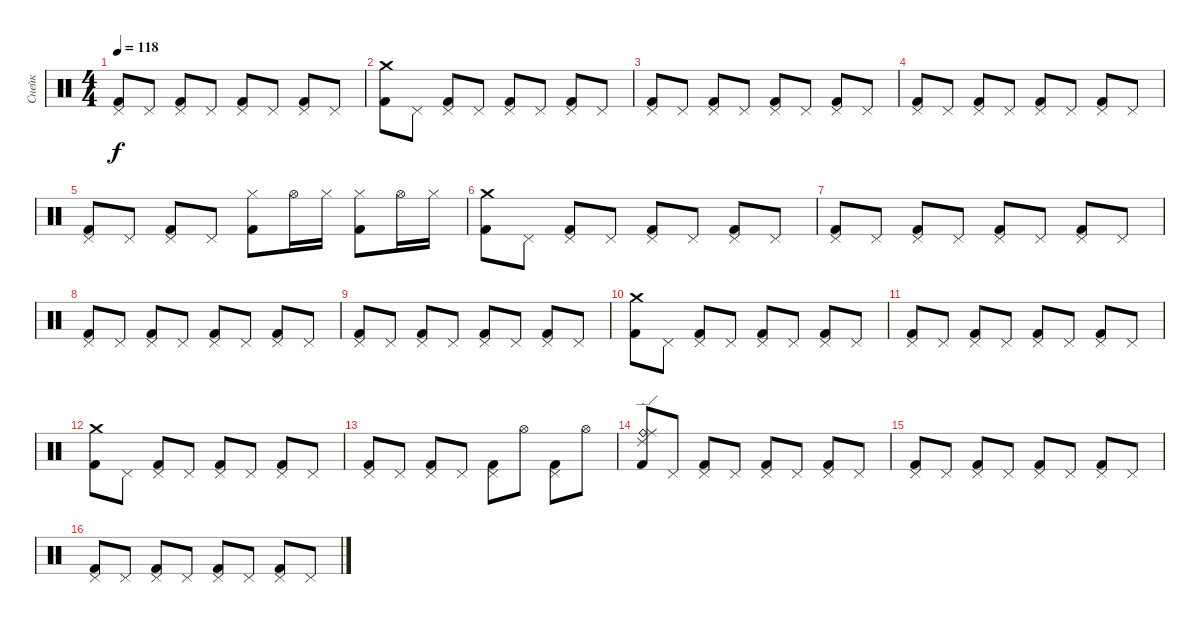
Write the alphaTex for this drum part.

\track ("Снейк" "Снейк") {instrument percussion}
\staff {score}
\articulation defaults
\ts (4 4)
\tempo 118
\clef neutral
\ks c
("Pedal Hi-Hat (hit)" "Kick (hit) 2").8{dy f} "Pedal Hi-Hat (hit)".8 ("Pedal Hi-Hat (hit)" "Kick (hit) 2").8 "Pedal Hi-Hat (hit)".8 ("Pedal Hi-Hat (hit)" "Kick (hit) 2").8 "Pedal Hi-Hat (hit)".8 ("Pedal Hi-Hat (hit)" "Kick (hit) 2").8 "Pedal Hi-Hat (hit)".8 |
("Crash medium (hit)" "Kick (hit) 2").8 "Pedal Hi-Hat (hit)".8 ("Pedal Hi-Hat (hit)" "Kick (hit) 2").8 "Pedal Hi-Hat (hit)".8 ("Pedal Hi-Hat (hit)" "Kick (hit) 2").8 "Pedal Hi-Hat (hit)".8 ("Pedal Hi-Hat (hit)" "Kick (hit) 2").8 "Pedal Hi-Hat (hit)".8 |
("Pedal Hi-Hat (hit)" "Kick (hit) 2").8 "Pedal Hi-Hat (hit)".8 ("Pedal Hi-Hat (hit)" "Kick (hit) 2").8 "Pedal Hi-Hat (hit)".8 ("Pedal Hi-Hat (hit)" "Kick (hit) 2").8 "Pedal Hi-Hat (hit)".8 ("Pedal Hi-Hat (hit)" "Kick (hit) 2").8 "Pedal Hi-Hat (hit)".8 |
("Pedal Hi-Hat (hit)" "Kick (hit) 2").8 "Pedal Hi-Hat (hit)".8 ("Pedal Hi-Hat (hit)" "Kick (hit) 2").8 "Pedal Hi-Hat (hit)".8 ("Pedal Hi-Hat (hit)" "Kick (hit) 2").8 "Pedal Hi-Hat (hit)".8 ("Pedal Hi-Hat (hit)" "Kick (hit) 2").8 "Pedal Hi-Hat (hit)".8 |
("Pedal Hi-Hat (hit)" "Kick (hit) 2").8 "Pedal Hi-Hat (hit)".8 ("Pedal Hi-Hat (hit)" "Kick (hit) 2").8 "Pedal Hi-Hat (hit)".8 ("Hi-Hat (closed)" "Kick (hit) 2").8 "Hi-Hat (open)".16 "Hi-Hat (closed)".16 ("Hi-Hat (closed)" "Kick (hit) 2").8 "Hi-Hat (open)".16 "Hi-Hat (closed)".16 |
("Crash medium (hit)" "Kick (hit) 2").8 "Pedal Hi-Hat (hit)".8 ("Pedal Hi-Hat (hit)" "Kick (hit) 2").8 "Pedal Hi-Hat (hit)".8 ("Pedal Hi-Hat (hit)" "Kick (hit) 2").8 "Pedal Hi-Hat (hit)".8 ("Pedal Hi-Hat (hit)" "Kick (hit) 2").8 "Pedal Hi-Hat (hit)".8 |
("Pedal Hi-Hat (hit)" "Kick (hit) 2").8 "Pedal Hi-Hat (hit)".8 ("Pedal Hi-Hat (hit)" "Kick (hit) 2").8 "Pedal Hi-Hat (hit)".8 ("Pedal Hi-Hat (hit)" "Kick (hit) 2").8 "Pedal Hi-Hat (hit)".8 ("Pedal Hi-Hat (hit)" "Kick (hit) 2").8 "Pedal Hi-Hat (hit)".8 |
("Pedal Hi-Hat (hit)" "Kick (hit) 2").8 "Pedal Hi-Hat (hit)".8 ("Pedal Hi-Hat (hit)" "Kick (hit) 2").8 "Pedal Hi-Hat (hit)".8 ("Pedal Hi-Hat (hit)" "Kick (hit) 2").8 "Pedal Hi-Hat (hit)".8 ("Pedal Hi-Hat (hit)" "Kick (hit) 2").8 "Pedal Hi-Hat (hit)".8 |
("Pedal Hi-Hat (hit)" "Kick (hit) 2").8 "Pedal Hi-Hat (hit)".8 ("Pedal Hi-Hat (hit)" "Kick (hit) 2").8 "Pedal Hi-Hat (hit)".8 ("Pedal Hi-Hat (hit)" "Kick (hit) 2").8 "Pedal Hi-Hat (hit)".8 ("Pedal Hi-Hat (hit)" "Kick (hit) 2").8 "Pedal Hi-Hat (hit)".8 |
("Crash medium (hit)" "Kick (hit) 2").8 "Pedal Hi-Hat (hit)".8 ("Pedal Hi-Hat (hit)" "Kick (hit) 2").8 "Pedal Hi-Hat (hit)".8 ("Pedal Hi-Hat (hit)" "Kick (hit) 2").8 "Pedal Hi-Hat (hit)".8 ("Pedal Hi-Hat (hit)" "Kick (hit) 2").8 "Pedal Hi-Hat (hit)".8 |
("Pedal Hi-Hat (hit)" "Kick (hit) 2").8 "Pedal Hi-Hat (hit)".8 ("Pedal Hi-Hat (hit)" "Kick (hit) 2").8 "Pedal Hi-Hat (hit)".8 ("Pedal Hi-Hat (hit)" "Kick (hit) 2").8 "Pedal Hi-Hat (hit)".8 ("Pedal Hi-Hat (hit)" "Kick (hit) 2").8 "Pedal Hi-Hat (hit)".8 |
("Crash medium (hit)" "Kick (hit) 2").8 "Pedal Hi-Hat (hit)".8 ("Pedal Hi-Hat (hit)" "Kick (hit) 2").8 "Pedal Hi-Hat (hit)".8 ("Pedal Hi-Hat (hit)" "Kick (hit) 2").8 "Pedal Hi-Hat (hit)".8 ("Pedal Hi-Hat (hit)" "Kick (hit) 2").8 "Pedal Hi-Hat (hit)".8 |
("Pedal Hi-Hat (hit)" "Kick (hit) 2").8 "Pedal Hi-Hat (hit)".8 ("Pedal Hi-Hat (hit)" "Kick (hit) 2").8 "Pedal Hi-Hat (hit)".8 ("Pedal Hi-Hat (hit)" "Kick (hit) 2").8 "Hi-Hat (open)".8 ("Pedal Hi-Hat (hit)" "Kick (hit) 2").8 "Hi-Hat (open)".8 |
("Ride (bell)" "Ride (middle)" "Ride (edge) 2" "Kick (hit) 2").8 "Pedal Hi-Hat (hit)".8 ("Pedal Hi-Hat (hit)" "Kick (hit) 2").8 "Pedal Hi-Hat (hit)".8 ("Pedal Hi-Hat (hit)" "Kick (hit) 2").8 "Pedal Hi-Hat (hit)".8 ("Pedal Hi-Hat (hit)" "Kick (hit) 2").8 "Pedal Hi-Hat (hit)".8 |
("Pedal Hi-Hat (hit)" "Kick (hit) 2").8 "Pedal Hi-Hat (hit)".8 ("Pedal Hi-Hat (hit)" "Kick (hit) 2").8 "Pedal Hi-Hat (hit)".8 ("Pedal Hi-Hat (hit)" "Kick (hit) 2").8 "Pedal Hi-Hat (hit)".8 ("Pedal Hi-Hat (hit)" "Kick (hit) 2").8 "Pedal Hi-Hat (hit)".8 |
("Pedal Hi-Hat (hit)" "Kick (hit) 2").8 "Pedal Hi-Hat (hit)".8 ("Pedal Hi-Hat (hit)" "Kick (hit) 2").8 "Pedal Hi-Hat (hit)".8 ("Pedal Hi-Hat (hit)" "Kick (hit) 2").8 "Pedal Hi-Hat (hit)".8 ("Pedal Hi-Hat (hit)" "Kick (hit) 2").8 "Pedal Hi-Hat (hit)".8
